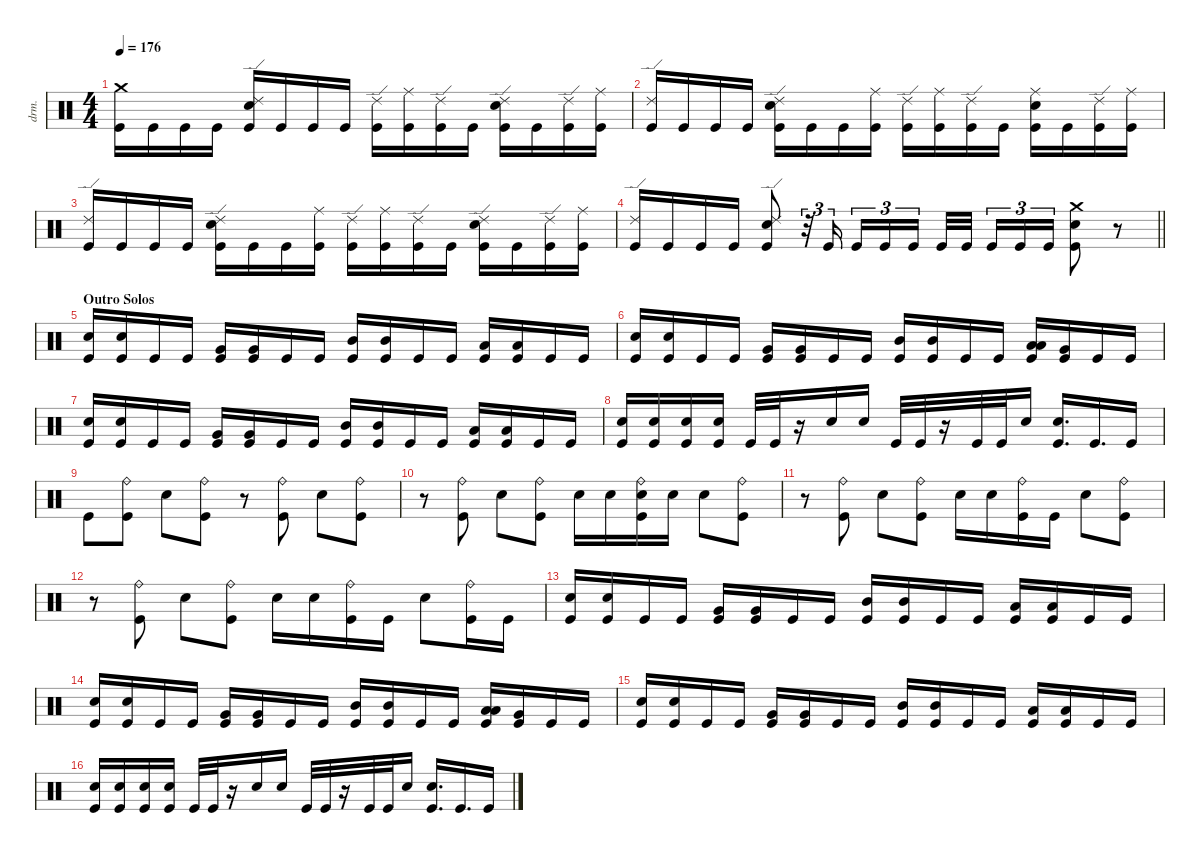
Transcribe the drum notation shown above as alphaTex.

\defaultSystemsLayout 4
\hideDynamics
\bracketExtendMode nobrackets
\track ("Gene Hoglan " "drm.") {instrument percussion}
\staff {score}
\articulation defaults
\ts (4 4)
\tempo 176
\clef neutral
\ks c
("Crash medium (hit)" "Kick (hit)").16{dy f} "Kick (hit)".16 "Kick (hit)".16 "Kick (hit)".16 ("Ride (edge) 2" "Snare (hit) 2" "Kick (hit)").16 "Kick (hit)".16 "Kick (hit)".16 "Kick (hit)".16 ("Ride (edge) 2" "Kick (hit)").16 ("Ride (middle)" "Kick (hit)").16 ("Ride (edge) 2" "Kick (hit)").16 "Kick (hit)".16 ("Ride (edge) 2" "Snare (hit) 2" "Kick (hit)").16 "Kick (hit)".16 ("Ride (edge) 2" "Kick (hit)").16 ("Ride (middle)" "Kick (hit)").16 |
("Ride (edge) 2" "Kick (hit)").16 "Kick (hit)".16 "Kick (hit)".16 "Kick (hit)".16 ("Ride (edge) 2" "Snare (hit) 2" "Kick (hit)").16 "Kick (hit)".16 "Kick (hit)".16 ("Ride (middle)" "Kick (hit)").16 ("Ride (edge) 2" "Kick (hit)").16 ("Ride (middle)" "Kick (hit)").16 ("Ride (edge) 2" "Kick (hit)").16 "Kick (hit)".16 ("Ride (middle)" "Snare (hit) 2" "Kick (hit)").16 "Kick (hit)".16 ("Ride (edge) 2" "Kick (hit)").16 ("Ride (middle)" "Kick (hit)").16 |
("Ride (edge) 2" "Kick (hit)").16 "Kick (hit)".16 "Kick (hit)".16 "Kick (hit)".16 ("Ride (edge) 2" "Snare (hit) 2" "Kick (hit)").16 "Kick (hit)".16 "Kick (hit)".16 ("Ride (middle)" "Kick (hit)").16 ("Ride (edge) 2" "Kick (hit)").16 ("Ride (middle)" "Kick (hit)").16 ("Ride (edge) 2" "Kick (hit)").16 "Kick (hit)".16 ("Ride (edge) 2" "Snare (hit) 2" "Kick (hit)").16 "Kick (hit)".16 ("Ride (edge) 2" "Kick (hit)").16 ("Ride (middle)" "Kick (hit)").16 |
\barLineRight lightlight
("Ride (edge) 2" "Kick (hit)").16 "Kick (hit)".16 "Kick (hit)".16 "Kick (hit)".16 ("Ride (edge) 2" "Snare (hit) 2" "Kick (hit)").8 r.32{tu (3 2)} "Kick (hit)".16{tu (3 2)} "Kick (hit)".16{tu (3 2)} "Kick (hit)".16{tu (3 2)} "Kick (hit)".16{tu (3 2)} "Kick (hit)".32 "Kick (hit)".32 "Kick (hit)".16{tu (3 2)} "Kick (hit)".16{tu (3 2)} "Kick (hit)".16{tu (3 2)} ("Crash medium (hit)" "Snare (hit) 2" "Kick (hit)").8 r.8 |
\section ("" "Outro Solos")
("Snare (hit) 2" "Kick (hit)").16 ("Snare (hit) 2" "Kick (hit)").16 "Kick (hit)".16 "Kick (hit)".16 ("Very Low Tom (hit)" "Kick (hit)").16 ("Very Low Tom (hit)" "Kick (hit)").16 "Kick (hit)".16 "Kick (hit)".16 ("Mid Tom (hit)" "Kick (hit)").16 ("Mid Tom (hit)" "Kick (hit)").16 "Kick (hit)".16 "Kick (hit)".16 ("Low Tom (hit)" "Kick (hit)").16 ("Low Tom (hit)" "Kick (hit)").16 "Kick (hit)".16 "Kick (hit)".16 |
("Snare (hit) 2" "Kick (hit)").16 ("Snare (hit) 2" "Kick (hit)").16 "Kick (hit)".16 "Kick (hit)".16 ("Very Low Tom (hit)" "Kick (hit)").16 ("Very Low Tom (hit)" "Kick (hit)").16 "Kick (hit)".16 "Kick (hit)".16 ("Mid Tom (hit)" "Kick (hit)").16 ("Mid Tom (hit)" "Kick (hit)").16 "Kick (hit)".16 "Kick (hit)".16 ("Low Tom (hit)" "Low Tom (hit)" "Kick (hit)").16 ("Very Low Tom (hit)" "Kick (hit)").16 "Kick (hit)".16 "Kick (hit)".16 |
("Snare (hit) 2" "Kick (hit)").16 ("Snare (hit) 2" "Kick (hit)").16 "Kick (hit)".16 "Kick (hit)".16 ("Very Low Tom (hit)" "Kick (hit)").16 ("Very Low Tom (hit)" "Kick (hit)").16 "Kick (hit)".16 "Kick (hit)".16 ("Mid Tom (hit)" "Kick (hit)").16 ("Mid Tom (hit)" "Kick (hit)").16 "Kick (hit)".16 "Kick (hit)".16 ("Low Tom (hit)" "Kick (hit)").16 ("Low Tom (hit)" "Kick (hit)").16 "Kick (hit)".16 "Kick (hit)".16 |
("Snare (hit) 2" "Kick (hit)").16 ("Snare (hit) 2" "Kick (hit)").16 ("Snare (hit) 2" "Kick (hit)").16 ("Snare (hit) 2" "Kick (hit)").16 "Kick (hit)".32 "Kick (hit)".32 r.16 "Snare (hit) 2".16 "Snare (hit) 2".16 "Kick (hit)".32 "Kick (hit)".32 r.16 "Kick (hit)".32 "Kick (hit)".32 "Snare (hit) 2".16 ("Snare (hit) 2" "Kick (hit)").16{d} "Kick (hit)".16{d} "Kick (hit)".16 |
"Kick (hit)".8 ("Ride (bell)" "Kick (hit)").8 "Snare (hit) 2".8 ("Ride (bell)" "Kick (hit)").8 r.8 ("Ride (bell)" "Kick (hit)").8 "Snare (hit) 2".8 ("Ride (bell)" "Kick (hit)").8 |
r.8 ("Ride (bell)" "Kick (hit)").8 "Snare (hit) 2".8 ("Ride (bell)" "Kick (hit)").8 "Snare (hit) 2".16 "Snare (hit) 2".16 ("Ride (bell)" "Snare (hit) 2" "Kick (hit)").16 "Snare (hit) 2".16 "Snare (hit) 2".8 ("Ride (bell)" "Kick (hit)").8 |
r.8 ("Ride (bell)" "Kick (hit)").8 "Snare (hit) 2".8 ("Ride (bell)" "Kick (hit)").8 "Snare (hit) 2".16 "Snare (hit) 2".16 ("Ride (bell)" "Kick (hit)").16 "Kick (hit)".16 "Snare (hit) 2".8 ("Ride (bell)" "Kick (hit)").8 |
r.8 ("Ride (bell)" "Kick (hit)").8 "Snare (hit) 2".8 ("Ride (bell)" "Kick (hit)").8 "Snare (hit) 2".16 "Snare (hit) 2".16 ("Ride (bell)" "Kick (hit)").16 "Kick (hit)".16 "Snare (hit) 2".8 ("Ride (bell)" "Kick (hit)").16 "Kick (hit)".16 |
("Snare (hit) 2" "Kick (hit)").16 ("Snare (hit) 2" "Kick (hit)").16 "Kick (hit)".16 "Kick (hit)".16 ("Very Low Tom (hit)" "Kick (hit)").16 ("Very Low Tom (hit)" "Kick (hit)").16 "Kick (hit)".16 "Kick (hit)".16 ("Mid Tom (hit)" "Kick (hit)").16 ("Mid Tom (hit)" "Kick (hit)").16 "Kick (hit)".16 "Kick (hit)".16 ("Low Tom (hit)" "Kick (hit)").16 ("Low Tom (hit)" "Kick (hit)").16 "Kick (hit)".16 "Kick (hit)".16 |
("Snare (hit) 2" "Kick (hit)").16 ("Snare (hit) 2" "Kick (hit)").16 "Kick (hit)".16 "Kick (hit)".16 ("Very Low Tom (hit)" "Kick (hit)").16 ("Very Low Tom (hit)" "Kick (hit)").16 "Kick (hit)".16 "Kick (hit)".16 ("Mid Tom (hit)" "Kick (hit)").16 ("Mid Tom (hit)" "Kick (hit)").16 "Kick (hit)".16 "Kick (hit)".16 ("Low Tom (hit)" "Low Tom (hit)" "Kick (hit)").16 ("Very Low Tom (hit)" "Kick (hit)").16 "Kick (hit)".16 "Kick (hit)".16 |
("Snare (hit) 2" "Kick (hit)").16 ("Snare (hit) 2" "Kick (hit)").16 "Kick (hit)".16 "Kick (hit)".16 ("Very Low Tom (hit)" "Kick (hit)").16 ("Very Low Tom (hit)" "Kick (hit)").16 "Kick (hit)".16 "Kick (hit)".16 ("Mid Tom (hit)" "Kick (hit)").16 ("Mid Tom (hit)" "Kick (hit)").16 "Kick (hit)".16 "Kick (hit)".16 ("Low Tom (hit)" "Kick (hit)").16 ("Low Tom (hit)" "Kick (hit)").16 "Kick (hit)".16 "Kick (hit)".16 |
("Snare (hit) 2" "Kick (hit)").16 ("Snare (hit) 2" "Kick (hit)").16 ("Snare (hit) 2" "Kick (hit)").16 ("Snare (hit) 2" "Kick (hit)").16 "Kick (hit)".32 "Kick (hit)".32 r.16 "Snare (hit) 2".16 "Snare (hit) 2".16 "Kick (hit)".32 "Kick (hit)".32 r.16 "Kick (hit)".32 "Kick (hit)".32 "Snare (hit) 2".16 ("Snare (hit) 2" "Kick (hit)").16{d} "Kick (hit)".16{d} "Kick (hit)".16
